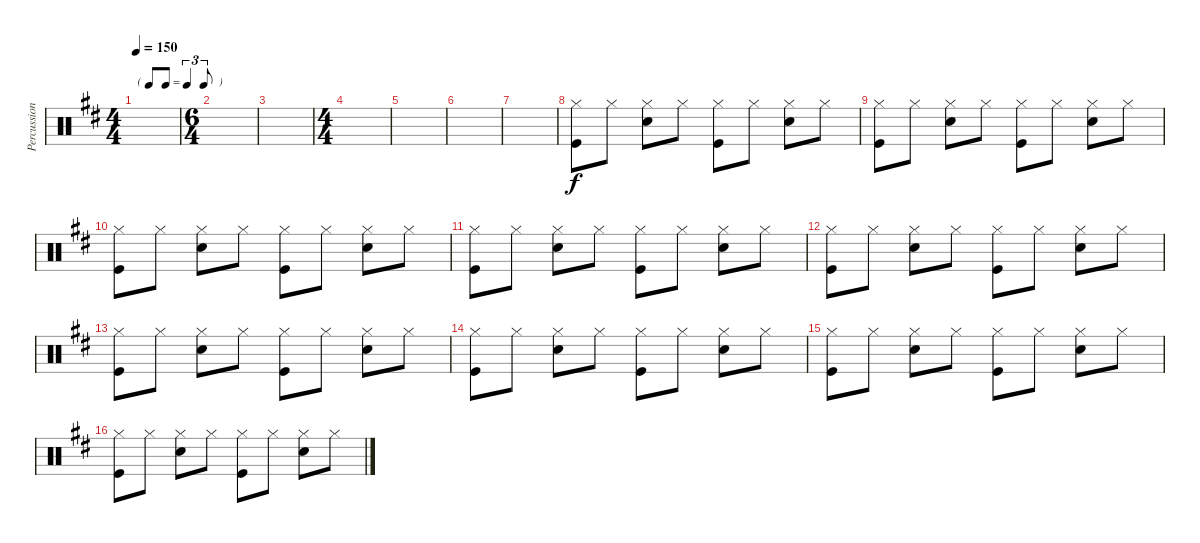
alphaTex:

\track ("Percussion" "Percussion") {instrument percussion}
\staff {score}
\articulation defaults
\ts (4 4)
\tf triplet8th
\tempo 150
\clef neutral
\ks d
|
\ts (6 4)
|
|
\ts (4 4)
|
|
|
|
("Hi-Hat (closed)" "Kick (hit)").8 "Hi-Hat (closed)".8 ("Hi-Hat (closed)" "Snare (hit) 2").8 "Hi-Hat (closed)".8 ("Hi-Hat (closed)" "Kick (hit)").8 "Hi-Hat (closed)".8 ("Hi-Hat (closed)" "Snare (hit) 2").8 "Hi-Hat (closed)".8 |
("Hi-Hat (closed)" "Kick (hit)").8 "Hi-Hat (closed)".8 ("Hi-Hat (closed)" "Snare (hit) 2").8 "Hi-Hat (closed)".8 ("Hi-Hat (closed)" "Kick (hit)").8 "Hi-Hat (closed)".8 ("Hi-Hat (closed)" "Snare (hit) 2").8 "Hi-Hat (closed)".8 |
("Hi-Hat (closed)" "Kick (hit)").8 "Hi-Hat (closed)".8 ("Hi-Hat (closed)" "Snare (hit) 2").8 "Hi-Hat (closed)".8 ("Hi-Hat (closed)" "Kick (hit)").8 "Hi-Hat (closed)".8 ("Hi-Hat (closed)" "Snare (hit) 2").8 "Hi-Hat (closed)".8 |
("Hi-Hat (closed)" "Kick (hit)").8 "Hi-Hat (closed)".8 ("Hi-Hat (closed)" "Snare (hit) 2").8 "Hi-Hat (closed)".8 ("Hi-Hat (closed)" "Kick (hit)").8 "Hi-Hat (closed)".8 ("Hi-Hat (closed)" "Snare (hit) 2").8 "Hi-Hat (closed)".8 |
("Hi-Hat (closed)" "Kick (hit)").8 "Hi-Hat (closed)".8 ("Hi-Hat (closed)" "Snare (hit) 2").8 "Hi-Hat (closed)".8 ("Hi-Hat (closed)" "Kick (hit)").8 "Hi-Hat (closed)".8 ("Hi-Hat (closed)" "Snare (hit) 2").8 "Hi-Hat (closed)".8 |
("Hi-Hat (closed)" "Kick (hit)").8 "Hi-Hat (closed)".8 ("Hi-Hat (closed)" "Snare (hit) 2").8 "Hi-Hat (closed)".8 ("Hi-Hat (closed)" "Kick (hit)").8 "Hi-Hat (closed)".8 ("Hi-Hat (closed)" "Snare (hit) 2").8 "Hi-Hat (closed)".8 |
("Hi-Hat (closed)" "Kick (hit)").8 "Hi-Hat (closed)".8 ("Hi-Hat (closed)" "Snare (hit) 2").8 "Hi-Hat (closed)".8 ("Hi-Hat (closed)" "Kick (hit)").8 "Hi-Hat (closed)".8 ("Hi-Hat (closed)" "Snare (hit) 2").8 "Hi-Hat (closed)".8 |
("Hi-Hat (closed)" "Kick (hit)").8 "Hi-Hat (closed)".8 ("Hi-Hat (closed)" "Snare (hit) 2").8 "Hi-Hat (closed)".8 ("Hi-Hat (closed)" "Kick (hit)").8 "Hi-Hat (closed)".8 ("Hi-Hat (closed)" "Snare (hit) 2").8 "Hi-Hat (closed)".8 |
("Hi-Hat (closed)" "Kick (hit)").8 "Hi-Hat (closed)".8 ("Hi-Hat (closed)" "Snare (hit) 2").8 "Hi-Hat (closed)".8 ("Hi-Hat (closed)" "Kick (hit)").8 "Hi-Hat (closed)".8 ("Hi-Hat (closed)" "Snare (hit) 2").8 "Hi-Hat (closed)".8
